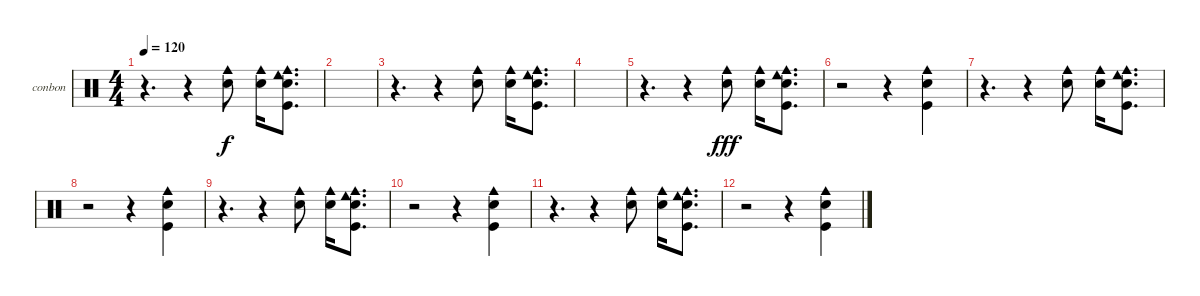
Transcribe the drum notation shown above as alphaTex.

\defaultSystemsLayout 4
\bracketExtendMode groupsimilarinstruments
\firstSystemTrackNameOrientation horizontal
\otherSystemsTrackNameOrientation horizontal
\track ("Bongos N Congas" "conbon") {instrument percussion}
\staff {score}
\articulation defaults
\ts (4 4)
\tempo 120
\clef neutral
\scale
0.333333
\ks c
r.4{d dy f} r.4 ("Cowbell medium (hit)" "Snare (hit) 2").8 ("Cowbell medium (hit)" "Snare (hit) 2").16 ("Kick (hit)" "Cowbell medium (hit)" "Cowbell low (hit)" "Snare (hit) 2").8{d} |
\scale
0.333333 |
\scale
0.333333 r.4{d} r.4 ("Cowbell medium (hit)" "Snare (hit) 2").8 ("Cowbell medium (hit)" "Snare (hit) 2").16 ("Kick (hit)" "Cowbell medium (hit)" "Cowbell low (hit)" "Snare (hit) 2").8{d} |
\scale
0.333333 |
\scale
0.333333 r.4{d} r.4 ("Cowbell medium (hit)" "Snare (hit) 2").8{dy fff} ("Cowbell medium (hit)" "Snare (hit) 2").16 ("Kick (hit)" "Cowbell medium (hit)" "Cowbell low (hit)" "Snare (hit) 2").8{d} |
\scale
0.333333 r.2 r.4 ("Snare (hit) 2" "Kick (hit)" "Cowbell medium (hit)").4 |
\scale
0.333333 r.4{d} r.4 ("Cowbell medium (hit)" "Snare (hit) 2").8 ("Cowbell medium (hit)" "Snare (hit) 2").16 ("Kick (hit)" "Cowbell medium (hit)" "Cowbell low (hit)" "Snare (hit) 2").8{d} |
\scale
0.333333 r.2 r.4 ("Snare (hit) 2" "Kick (hit)" "Cowbell medium (hit)").4 |
\scale
0.333333 r.4{d} r.4 ("Cowbell medium (hit)" "Snare (hit) 2").8 ("Cowbell medium (hit)" "Snare (hit) 2").16 ("Kick (hit)" "Cowbell medium (hit)" "Cowbell low (hit)" "Snare (hit) 2").8{d} |
\scale
0.333333 r.2 r.4 ("Snare (hit) 2" "Kick (hit)" "Cowbell medium (hit)").4 |
\scale
0.333333 r.4{d} r.4 ("Cowbell medium (hit)" "Snare (hit) 2").8 ("Cowbell medium (hit)" "Snare (hit) 2").16 ("Kick (hit)" "Cowbell medium (hit)" "Cowbell low (hit)" "Snare (hit) 2").8{d} |
\scale
0.333333 r.2 r.4 ("Snare (hit) 2" "Kick (hit)" "Cowbell medium (hit)").4 |
\scale
0.333333 |
\scale
0.333333 |
\scale
0.333333 |
\scale
0.333333
